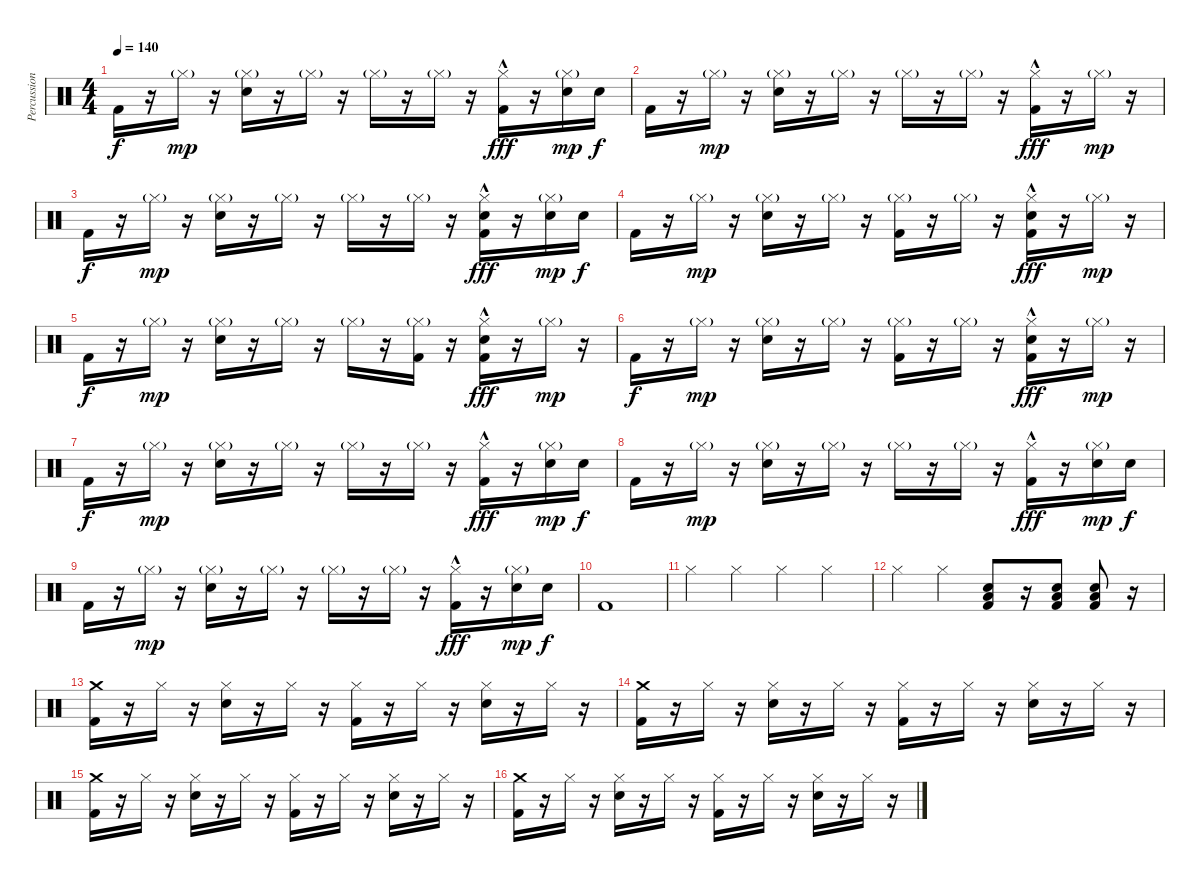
\track ("Percussion" "Percussion") {instrument percussion}
\staff {score}
\articulation defaults
\ts (4 4)
\tempo 140
\clef neutral
\ks c "Kick (hit) 2".16{dy f}
r.16 "Hi-Hat (closed)"{g}.16{dy mp} r.16 ("Hi-Hat (closed)"{g} "Snare (hit) 2").16 r.16 "Hi-Hat (closed)"{g}.16 r.16 "Hi-Hat (closed)"{g}.16 r.16 "Hi-Hat (closed)"{g}.16 r.16 ("Hi-Hat (closed)"{hac} "Kick (hit) 2").16{dy fff} r.16 ("Hi-Hat (closed)"{g} "Snare (hit) 2").16{dy mp} "Snare (hit) 2".16{dy f} |
"Kick (hit) 2".16 r.16 "Hi-Hat (closed)"{g}.16{dy mp} r.16 ("Hi-Hat (closed)"{g} "Snare (hit) 2").16 r.16 "Hi-Hat (closed)"{g}.16 r.16 "Hi-Hat (closed)"{g}.16 r.16 "Hi-Hat (closed)"{g}.16 r.16 ("Hi-Hat (closed)"{hac} "Kick (hit) 2").16{dy fff} r.16 "Hi-Hat (closed)"{g}.16{dy mp} r.16 |
"Kick (hit) 2".16{dy f} r.16 "Hi-Hat (closed)"{g}.16{dy mp} r.16 ("Hi-Hat (closed)"{g} "Snare (hit) 2").16 r.16 "Hi-Hat (closed)"{g}.16 r.16 "Hi-Hat (closed)"{g}.16 r.16 "Hi-Hat (closed)"{g}.16 r.16 ("Hi-Hat (closed)"{hac} "Snare (hit) 2" "Kick (hit) 2").16{dy fff} r.16 ("Hi-Hat (closed)"{g} "Snare (hit) 2").16{dy mp} "Snare (hit) 2".16{dy f} |
"Kick (hit) 2".16 r.16 "Hi-Hat (closed)"{g}.16{dy mp} r.16 ("Hi-Hat (closed)"{g} "Snare (hit) 2").16 r.16 "Hi-Hat (closed)"{g}.16 r.16 ("Hi-Hat (closed)"{g} "Kick (hit) 2").16 r.16 "Hi-Hat (closed)"{g}.16 r.16 ("Hi-Hat (closed)"{hac} "Snare (hit) 2" "Kick (hit) 2").16{dy fff} r.16 "Hi-Hat (closed)"{g}.16{dy mp} r.16 |
"Kick (hit) 2".16{dy f} r.16 "Hi-Hat (closed)"{g}.16{dy mp} r.16 ("Hi-Hat (closed)"{g} "Snare (hit) 2").16 r.16 "Hi-Hat (closed)"{g}.16 r.16 "Hi-Hat (closed)"{g}.16 r.16 ("Hi-Hat (closed)"{g} "Kick (hit) 2").16 r.16 ("Hi-Hat (closed)"{hac} "Snare (hit) 2" "Kick (hit) 2").16{dy fff} r.16 "Hi-Hat (closed)"{g}.16{dy mp} r.16 |
"Kick (hit) 2".16{dy f} r.16 "Hi-Hat (closed)"{g}.16{dy mp} r.16 ("Hi-Hat (closed)"{g} "Snare (hit) 2").16 r.16 "Hi-Hat (closed)"{g}.16 r.16 ("Hi-Hat (closed)"{g} "Kick (hit) 2").16 r.16 "Hi-Hat (closed)"{g}.16 r.16 ("Hi-Hat (closed)"{hac} "Snare (hit) 2" "Kick (hit) 2").16{dy fff} r.16 "Hi-Hat (closed)"{g}.16{dy mp} r.16 |
"Kick (hit) 2".16{dy f} r.16 "Hi-Hat (closed)"{g}.16{dy mp} r.16 ("Hi-Hat (closed)"{g} "Snare (hit) 2").16 r.16 "Hi-Hat (closed)"{g}.16 r.16 "Hi-Hat (closed)"{g}.16 r.16 "Hi-Hat (closed)"{g}.16 r.16 ("Hi-Hat (closed)"{hac} "Kick (hit) 2").16{dy fff} r.16 ("Hi-Hat (closed)"{g} "Snare (hit) 2").16{dy mp} "Snare (hit) 2".16{dy f} |
"Kick (hit) 2".16 r.16 "Hi-Hat (closed)"{g}.16{dy mp} r.16 ("Hi-Hat (closed)"{g} "Snare (hit) 2").16 r.16 "Hi-Hat (closed)"{g}.16 r.16 "Hi-Hat (closed)"{g}.16 r.16 "Hi-Hat (closed)"{g}.16 r.16 ("Hi-Hat (closed)"{hac} "Kick (hit) 2").16{dy fff} r.16 ("Hi-Hat (closed)"{g} "Snare (hit) 2").16{dy mp} "Snare (hit) 2".16{dy f} |
"Kick (hit) 2".16 r.16 "Hi-Hat (closed)"{g}.16{dy mp} r.16 ("Hi-Hat (closed)"{g} "Snare (hit) 2").16 r.16 "Hi-Hat (closed)"{g}.16 r.16 "Hi-Hat (closed)"{g}.16 r.16 "Hi-Hat (closed)"{g}.16 r.16 ("Hi-Hat (closed)"{hac} "Kick (hit) 2").16{dy fff} r.16 ("Hi-Hat (closed)"{g} "Snare (hit) 2").16{dy mp} "Snare (hit) 2".16{dy f} |
"Kick (hit) 2".1 |
"Hi-Hat (closed)".4 "Hi-Hat (closed)".4 "Hi-Hat (closed)".4 "Hi-Hat (closed)".4 |
"Hi-Hat (closed)".4 "Hi-Hat (closed)".4 ("Low Floor Tom (hit)" "Snare (hit) 2" "Kick (hit) 2").8 r.16 ("Low Floor Tom (hit)" "Snare (hit) 2" "Kick (hit) 2").8 ("Low Floor Tom (hit)" "Snare (hit) 2" "Kick (hit) 2").8 r.16 |
("Crash medium (hit)" "Kick (hit) 2").16 r.16 "Hi-Hat (closed)".16 r.16 ("Hi-Hat (closed)" "Snare (hit) 2").16 r.16 "Hi-Hat (closed)".16 r.16 ("Hi-Hat (closed)" "Kick (hit) 2").16 r.16 "Hi-Hat (closed)".16 r.16 ("Hi-Hat (closed)" "Snare (hit) 2").16 r.16 "Hi-Hat (closed)".16 r.16 |
("Crash medium (hit)" "Kick (hit) 2").16 r.16 "Hi-Hat (closed)".16 r.16 ("Hi-Hat (closed)" "Snare (hit) 2").16 r.16 "Hi-Hat (closed)".16 r.16 ("Hi-Hat (closed)" "Kick (hit) 2").16 r.16 "Hi-Hat (closed)".16 r.16 ("Hi-Hat (closed)" "Snare (hit) 2").16 r.16 "Hi-Hat (closed)".16 r.16 |
("Crash medium (hit)" "Kick (hit) 2").16 r.16 "Hi-Hat (closed)".16 r.16 ("Hi-Hat (closed)" "Snare (hit) 2").16 r.16 "Hi-Hat (closed)".16 r.16 ("Hi-Hat (closed)" "Kick (hit) 2").16 r.16 "Hi-Hat (closed)".16 r.16 ("Hi-Hat (closed)" "Snare (hit) 2").16 r.16 "Hi-Hat (closed)".16 r.16 |
("Crash medium (hit)" "Kick (hit) 2").16 r.16 "Hi-Hat (closed)".16 r.16 ("Hi-Hat (closed)" "Snare (hit) 2").16 r.16 "Hi-Hat (closed)".16 r.16 ("Hi-Hat (closed)" "Kick (hit) 2").16 r.16 "Hi-Hat (closed)".16 r.16 ("Hi-Hat (closed)" "Snare (hit) 2").16 r.16 "Hi-Hat (closed)".16 r.16
